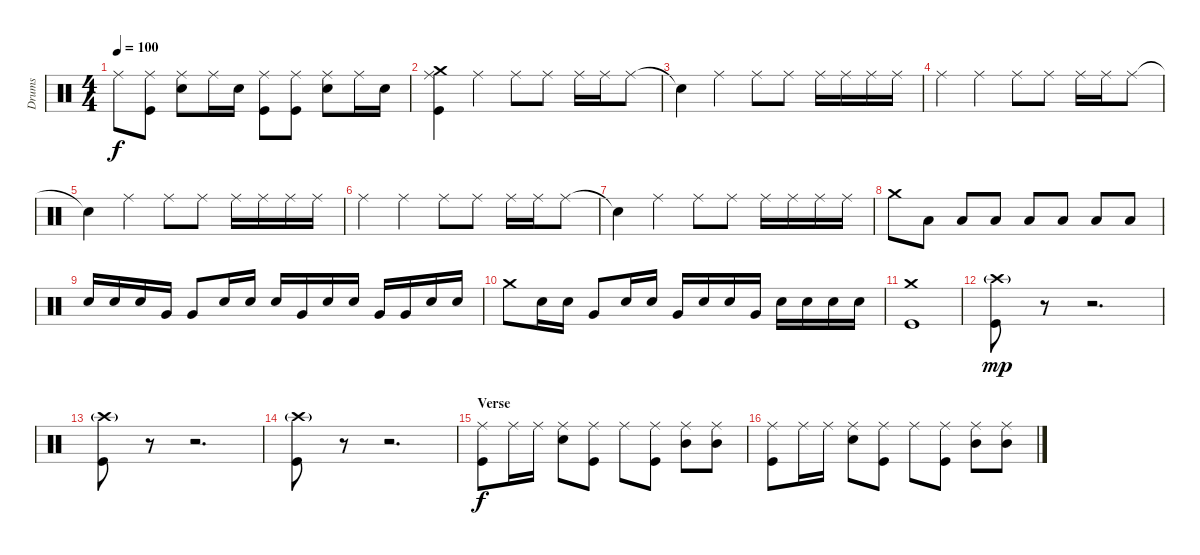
\track ("Drums" "Drums") {instrument percussion}
\staff {score}
\articulation defaults
\ts (4 4)
\tempo 100
\clef neutral
\ks c "Ride (middle)".8{dy f}
("Ride (middle)" "Kick (hit)").8 ("Ride (middle)" "Snare (hit) 2").8 "Ride (middle)".16 "Snare (hit) 2".16 ("Ride (middle)" "Kick (hit)").8 ("Ride (middle)" "Kick (hit)").8 ("Ride (middle)" "Snare (hit) 2").8 "Ride (middle)".16 "Snare (hit) 2".16 |
\section ("" "")
("Ride (middle)" "Crash medium (hit)" "Kick (hit)").4 "Ride (middle)".4 "Ride (middle)".8 "Ride (middle)".8 "Ride (middle)".16 "Ride (middle)".16 "Ride (middle)".8 |
"Snare (hit)"{t}.4 "Ride (middle)".4 "Ride (middle)".8 "Ride (middle)".8 "Ride (middle)".16 "Ride (middle)".16 "Ride (middle)".16 "Ride (middle)".16 |
"Ride (middle)".4 "Ride (middle)".4 "Ride (middle)".8 "Ride (middle)".8 "Ride (middle)".16 "Ride (middle)".16 "Ride (middle)".8 |
"Snare (hit)"{t}.4 "Ride (middle)".4 "Ride (middle)".8 "Ride (middle)".8 "Ride (middle)".16 "Ride (middle)".16 "Ride (middle)".16 "Ride (middle)".16 |
"Ride (middle)".4 "Ride (middle)".4 "Ride (middle)".8 "Ride (middle)".8 "Ride (middle)".16 "Ride (middle)".16 "Ride (middle)".8 |
"Snare (hit)"{t}.4 "Ride (middle)".4 "Ride (middle)".8 "Ride (middle)".8 "Ride (middle)".16 "Ride (middle)".16 "Ride (middle)".16 "Ride (middle)".16 |
\section ("" "")
"Crash medium (hit)".8 "Low Tom (hit)".8 "Low Tom (hit)".8 "Low Tom (hit)".8 "Low Tom (hit)".8 "Low Tom (hit)".8 "Low Tom (hit)".8 "Low Tom (hit)".8 |
"Snare (hit) 2".16 "Snare (hit) 2".16 "Snare (hit) 2".16 "Very Low Tom (hit)".16 "Very Low Tom (hit)".8 "Snare (hit) 2".16 "Snare (hit) 2".16 "Snare (hit) 2".16 "Very Low Tom (hit)".16 "Snare (hit) 2".16 "Snare (hit) 2".16 "Very Low Tom (hit)".16 "Very Low Tom (hit)".16 "Snare (hit) 2".16 "Snare (hit) 2".16 |
"Crash medium (hit)".8 "Snare (hit) 2".16 "Snare (hit) 2".16 "Very Low Tom (hit)".8 "Snare (hit) 2".16 "Snare (hit) 2".16 "Very Low Tom (hit)".16 "Snare (hit) 2".16 "Snare (hit) 2".16 "Very Low Tom (hit)".16 "Snare (hit) 2".16 "Snare (hit) 2".16 "Snare (hit) 2".16 "Snare (hit) 2".16 |
("Crash medium (hit)" "Kick (hit)").1 |
("Crash high (hit)"{g} "Kick (hit)").8{dy mp} r.8 r.2{d} |
("Crash high (hit)"{g} "Kick (hit)").8 r.8 r.2{d} |
("Crash high (hit)"{g} "Kick (hit)").8 r.8 r.2{d} |
\section ("" "Verse")
("Ride (middle)" "Kick (hit)").8{dy f} "Ride (middle)".16 "Ride (middle)".16 ("Ride (middle)" "Snare (hit) 2").8 ("Ride (middle)" "Kick (hit)").8 "Ride (middle)".8 ("Ride (middle)" "Kick (hit)").8 ("Ride (middle)" "Mid Tom (hit)").8 ("Ride (middle)" "Mid Tom (hit)").8 |
("Ride (middle)" "Kick (hit)").8 "Ride (middle)".16 "Ride (middle)".16 ("Ride (middle)" "Snare (hit) 2").8 ("Ride (middle)" "Kick (hit)").8 "Ride (middle)".8 ("Ride (middle)" "Kick (hit)").8 ("Ride (middle)" "Mid Tom (hit)").8 ("Ride (middle)" "Mid Tom (hit)").8
